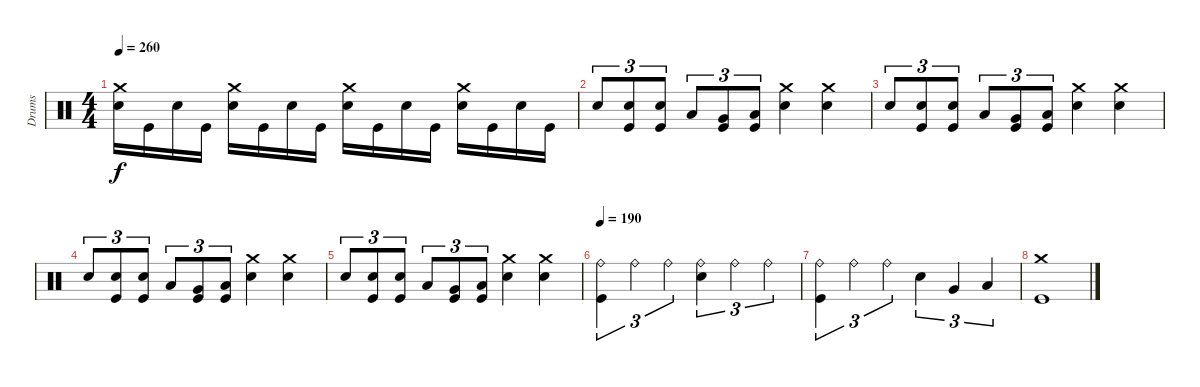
\track ("Drums" "Drums") {instrument percussion}
\staff {score}
\articulation defaults
\ts (4 4)
\tempo 260
\clef neutral
\ks c
("Crash medium (hit)" "Electric Snare (hit)").16{dy f} "Kick (hit)".16 "Electric Snare (hit)".16 "Kick (hit)".16 ("Crash medium (hit)" "Electric Snare (hit)").16 "Kick (hit)".16 "Electric Snare (hit)".16 "Kick (hit)".16 ("Crash medium (hit)" "Electric Snare (hit)").16 "Kick (hit)".16 "Electric Snare (hit)".16 "Kick (hit)".16 ("Crash medium (hit)" "Electric Snare (hit)").16 "Kick (hit)".16 "Electric Snare (hit)".16 "Kick (hit)".16 |
"Electric Snare (hit)".8{tu (3 2)} ("Electric Snare (hit)" "Kick (hit)").8{tu (3 2)} ("Electric Snare (hit)" "Kick (hit)").8{tu (3 2)} "Low Tom (hit)".8{tu (3 2)} ("Very Low Tom (hit)" "Kick (hit)").8{tu (3 2)} ("Low Floor Tom (hit)" "Kick (hit)").8{tu (3 2)} ("Crash medium (hit)" "Electric Snare (hit)").4 ("Crash medium (hit)" "Electric Snare (hit)").4 |
"Electric Snare (hit)".8{tu (3 2)} ("Electric Snare (hit)" "Kick (hit)").8{tu (3 2)} ("Electric Snare (hit)" "Kick (hit)").8{tu (3 2)} "Low Tom (hit)".8{tu (3 2)} ("Very Low Tom (hit)" "Kick (hit)").8{tu (3 2)} ("Low Floor Tom (hit)" "Kick (hit)").8{tu (3 2)} ("Crash medium (hit)" "Electric Snare (hit)").4 ("Crash medium (hit)" "Electric Snare (hit)").4 |
"Electric Snare (hit)".8{tu (3 2)} ("Electric Snare (hit)" "Kick (hit)").8{tu (3 2)} ("Electric Snare (hit)" "Kick (hit)").8{tu (3 2)} "Low Tom (hit)".8{tu (3 2)} ("Very Low Tom (hit)" "Kick (hit)").8{tu (3 2)} ("Low Floor Tom (hit)" "Kick (hit)").8{tu (3 2)} ("Crash medium (hit)" "Electric Snare (hit)").4 ("Crash medium (hit)" "Electric Snare (hit)").4 |
"Electric Snare (hit)".8{tu (3 2)} ("Electric Snare (hit)" "Kick (hit)").8{tu (3 2)} ("Electric Snare (hit)" "Kick (hit)").8{tu (3 2)} "Low Tom (hit)".8{tu (3 2)} ("Very Low Tom (hit)" "Kick (hit)").8{tu (3 2)} ("Low Floor Tom (hit)" "Kick (hit)").8{tu (3 2)} ("Crash medium (hit)" "Electric Snare (hit)").4 ("Crash medium (hit)" "Electric Snare (hit)").4 |
\tempo 190
("Ride (bell)" "Kick (hit)").4{tu (3 2)} "Ride (bell)".4{tu (3 2)} "Ride (bell)".4{tu (3 2)} ("Ride (bell)" "Electric Snare (hit)").4{tu (3 2)} "Ride (bell)".4{tu (3 2)} "Ride (bell)".4{tu (3 2)} |
("Ride (bell)" "Kick (hit)").4{tu (3 2)} "Ride (bell)".4{tu (3 2)} "Ride (bell)".4{tu (3 2)} "Electric Snare (hit)".4{tu (3 2)} "Very Low Tom (hit)".4{tu (3 2)} "Low Floor Tom (hit)".4{tu (3 2)} |
("Crash medium (hit)" "Kick (hit)").1
